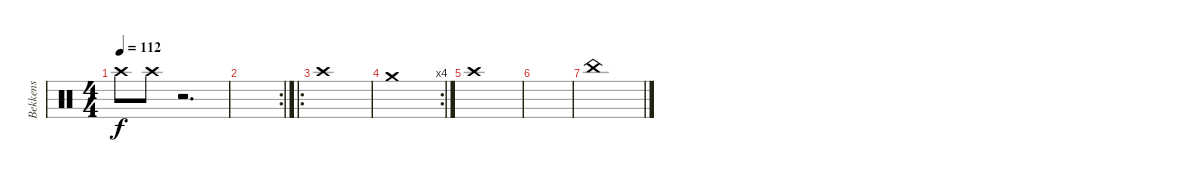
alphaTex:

\track ("Bekkens" "Bekkens") {instrument percussion}
\staff {score}
\articulation defaults
\ts (4 4)
\tempo 112
\clef neutral
\ks c "Crash high (hit)".8{dy f} "Crash high (hit)".8
r.2{d} |
\rc 2
|
\ro "Crash high (hit)".1
|
\rc 4 "Crash medium (hit)".1
|
"Crash high (hit)".1 |
|
"China (hit)".1
